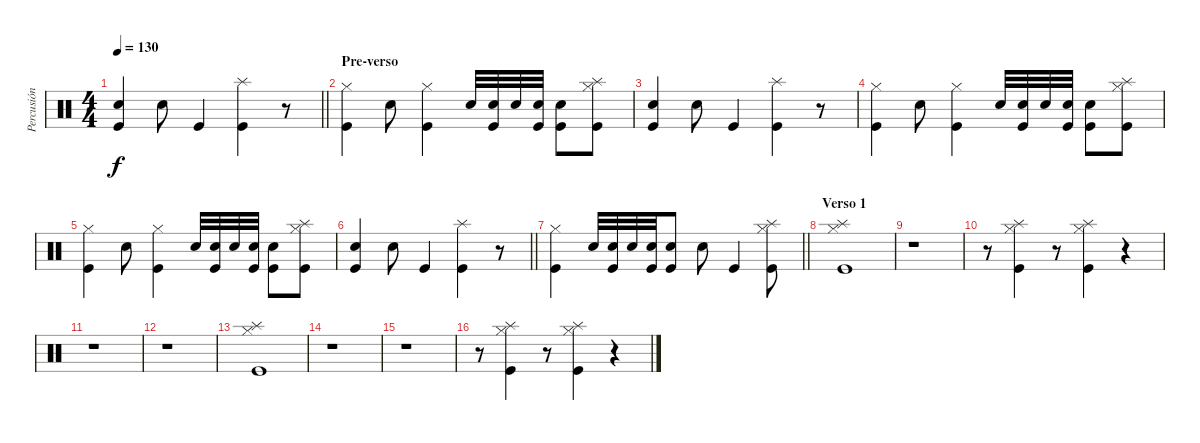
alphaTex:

\track ("Percusión" "Percusión") {instrument percussion}
\staff {score}
\articulation defaults
\ts (4 4)
\tempo 130
\clef neutral
\barLineRight lightlight
\ks c
("Snare (hit) 2" "Kick (hit)").4{dy f} "Snare (hit) 2".8 "Kick (hit)".4 ("Splash (hit)" "Kick (hit)").4 r.8 |
\section ("" "Pre-verso")
("Hi-Hat (closed)" "Kick (hit)").4 "Snare (hit) 2".8 ("Hi-Hat (closed)" "Kick (hit)").4 "Snare (hit) 2".32 ("Snare (hit) 2" "Kick (hit)").32 "Snare (hit) 2".32 ("Snare (hit) 2" "Kick (hit)").32 ("Snare (hit) 2" "Kick (hit)").8 ("Splash (hit)" "Hi-Hat (closed)" "Kick (hit)").8 |
("Snare (hit) 2" "Kick (hit)").4 "Snare (hit) 2".8 "Kick (hit)".4 ("Splash (hit)" "Kick (hit)").4 r.8 |
("Hi-Hat (closed)" "Kick (hit)").4 "Snare (hit) 2".8 ("Hi-Hat (closed)" "Kick (hit)").4 "Snare (hit) 2".32 ("Snare (hit) 2" "Kick (hit)").32 "Snare (hit) 2".32 ("Snare (hit) 2" "Kick (hit)").32 ("Snare (hit) 2" "Kick (hit)").8 ("Splash (hit)" "Hi-Hat (closed)" "Kick (hit)").8 |
("Hi-Hat (closed)" "Kick (hit)").4 "Snare (hit) 2".8 ("Hi-Hat (closed)" "Kick (hit)").4 "Snare (hit) 2".32 ("Snare (hit) 2" "Kick (hit)").32 "Snare (hit) 2".32 ("Snare (hit) 2" "Kick (hit)").32 ("Snare (hit) 2" "Kick (hit)").8 ("Splash (hit)" "Hi-Hat (closed)" "Kick (hit)").8 |
\barLineRight lightlight
("Snare (hit) 2" "Kick (hit)").4 "Snare (hit) 2".8 "Kick (hit)".4 ("Splash (hit)" "Kick (hit)").4 r.8 |
\barLineRight lightlight
("Hi-Hat (closed)" "Kick (hit)").4 "Snare (hit) 2".32 ("Snare (hit) 2" "Kick (hit)").32 "Snare (hit) 2".32 ("Snare (hit) 2" "Kick (hit)").32 ("Snare (hit) 2" "Kick (hit)").8 "Snare (hit) 2".8 "Kick (hit)".4 ("Splash (hit)" "Hi-Hat (closed)" "Kick (hit)").8 |
\section ("" "Verso 1")
("Splash (hit)" "Hi-Hat (closed)" "Kick (hit)").1 |
r.1 |
r.8 ("Splash (hit)" "Hi-Hat (closed)" "Kick (hit)").4 r.8 ("Splash (hit)" "Hi-Hat (closed)" "Kick (hit)").4 r.4 |
r.1 |
r.1 |
("Splash (hit)" "Hi-Hat (closed)" "Kick (hit)").1 |
r.1 |
r.1 |
r.8 ("Splash (hit)" "Hi-Hat (closed)" "Kick (hit)").4 r.8 ("Splash (hit)" "Hi-Hat (closed)" "Kick (hit)").4 r.4
